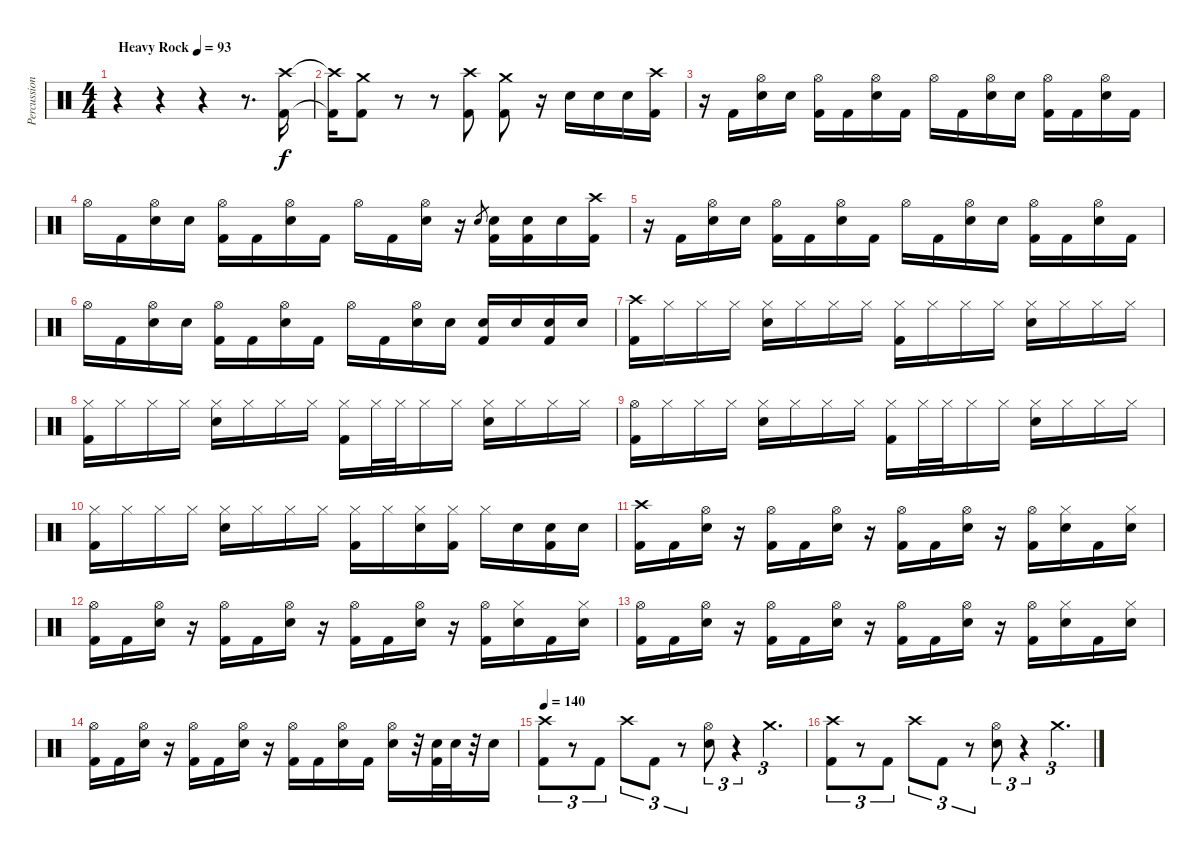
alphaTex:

\track ("Percussion" "Percussion") {instrument percussion}
\staff {score}
\articulation defaults
\ts (4 4)
\tempo (93 "Heavy Rock")
\clef neutral
\ks c
r.4{dy f} r.4 r.4 r.8{d} ("Crash high (hit)" "Kick (hit) 2").16 |
("Crash high (hit)"{t} "Kick (hit) 2"{t}).16 ("Crash medium (hit)" "Kick (hit) 2").8 r.8 r.8 ("Crash high (hit)" "Kick (hit) 2").8 ("Crash medium (hit)" "Kick (hit) 2").8 r.16 "Electric Snare (hit)".16 "Electric Snare (hit)".16 "Electric Snare (hit)".16 ("Crash high (hit)" "Kick (hit) 2").16 |
r.16 "Kick (hit) 2".16 ("Hi-Hat (open)" "Electric Snare (hit)").16 "Electric Snare (hit)".16 ("Hi-Hat (open)" "Kick (hit) 2").16 "Kick (hit) 2".16 ("Hi-Hat (open)" "Electric Snare (hit)").16 "Kick (hit) 2".16 "Hi-Hat (open)".16 "Kick (hit) 2".16 ("Hi-Hat (open)" "Electric Snare (hit)").16 "Electric Snare (hit)".16 ("Hi-Hat (open)" "Kick (hit) 2").16 "Kick (hit) 2".16 ("Hi-Hat (open)" "Electric Snare (hit)").16 "Kick (hit) 2".16 |
"Hi-Hat (open)".16 "Kick (hit) 2".16 ("Hi-Hat (open)" "Electric Snare (hit)").16 "Electric Snare (hit)".16 ("Hi-Hat (open)" "Kick (hit) 2").16 "Kick (hit) 2".16 ("Hi-Hat (open)" "Electric Snare (hit)").16 "Kick (hit) 2".16 "Hi-Hat (open)".16 "Kick (hit) 2".16 ("Hi-Hat (open)" "Electric Snare (hit)").16 r.16 "Electric Snare (hit)".8{gr} ("Electric Snare (hit)" "Kick (hit) 2").16 ("Electric Snare (hit)" "Kick (hit) 2").16 "Electric Snare (hit)".16 ("Crash high (hit)" "Kick (hit) 2").16 |
r.16 "Kick (hit) 2".16 ("Hi-Hat (open)" "Electric Snare (hit)").16 "Electric Snare (hit)".16 ("Hi-Hat (open)" "Kick (hit) 2").16 "Kick (hit) 2".16 ("Hi-Hat (open)" "Electric Snare (hit)").16 "Kick (hit) 2".16 "Hi-Hat (open)".16 "Kick (hit) 2".16 ("Hi-Hat (open)" "Electric Snare (hit)").16 "Electric Snare (hit)".16 ("Hi-Hat (open)" "Kick (hit) 2").16 "Kick (hit) 2".16 ("Hi-Hat (open)" "Electric Snare (hit)").16 "Kick (hit) 2".16 |
"Hi-Hat (open)".16 "Kick (hit) 2".16 ("Hi-Hat (open)" "Electric Snare (hit)").16 "Electric Snare (hit)".16 ("Hi-Hat (open)" "Kick (hit) 2").16 "Kick (hit) 2".16 ("Hi-Hat (open)" "Electric Snare (hit)").16 "Kick (hit) 2".16 "Hi-Hat (open)".16 "Kick (hit) 2".16 ("Hi-Hat (open)" "Electric Snare (hit)").16 "Electric Snare (hit)".16 ("Electric Snare (hit)" "Kick (hit) 2").16 "Electric Snare (hit)".16 ("Electric Snare (hit)" "Kick (hit) 2").16 "Electric Snare (hit)".16 |
("Crash high (hit)" "Kick (hit) 2").16 "Hi-Hat (closed)".16 "Hi-Hat (closed)".16 "Hi-Hat (closed)".16 ("Hi-Hat (closed)" "Electric Snare (hit)").16 "Hi-Hat (closed)".16 "Hi-Hat (closed)".16 "Hi-Hat (closed)".16 ("Hi-Hat (closed)" "Kick (hit) 2").16 "Hi-Hat (closed)".16 "Hi-Hat (closed)".16 "Hi-Hat (closed)".16 ("Hi-Hat (closed)" "Electric Snare (hit)").16 "Hi-Hat (closed)".16 "Hi-Hat (closed)".16 "Hi-Hat (closed)".16 |
("Hi-Hat (closed)" "Kick (hit) 2").16 "Hi-Hat (closed)".16 "Hi-Hat (closed)".16 "Hi-Hat (closed)".16 ("Hi-Hat (closed)" "Electric Snare (hit)").16 "Hi-Hat (closed)".16 "Hi-Hat (closed)".16 "Hi-Hat (closed)".16 ("Hi-Hat (closed)" "Kick (hit) 2").16 "Hi-Hat (closed)".32 "Hi-Hat (closed)".32 "Hi-Hat (closed)".16 "Hi-Hat (closed)".16 ("Hi-Hat (closed)" "Electric Snare (hit)").16 "Hi-Hat (closed)".16 "Hi-Hat (closed)".16 "Hi-Hat (closed)".16 |
("Hi-Hat (open)" "Kick (hit) 2").16 "Hi-Hat (closed)".16 "Hi-Hat (closed)".16 "Hi-Hat (closed)".16 ("Hi-Hat (closed)" "Electric Snare (hit)").16 "Hi-Hat (closed)".16 "Hi-Hat (closed)".16 "Hi-Hat (closed)".16 ("Hi-Hat (closed)" "Kick (hit) 2").16 "Hi-Hat (closed)".32 "Hi-Hat (closed)".32 "Hi-Hat (closed)".16 "Hi-Hat (closed)".16 ("Hi-Hat (closed)" "Electric Snare (hit)").16 "Hi-Hat (closed)".16 "Hi-Hat (closed)".16 "Hi-Hat (closed)".16 |
("Hi-Hat (closed)" "Kick (hit) 2").16 "Hi-Hat (closed)".16 "Hi-Hat (closed)".16 "Hi-Hat (closed)".16 ("Hi-Hat (closed)" "Electric Snare (hit)").16 "Hi-Hat (closed)".16 "Hi-Hat (closed)".16 "Hi-Hat (closed)".16 ("Hi-Hat (closed)" "Kick (hit) 2").16 "Hi-Hat (closed)".16 ("Hi-Hat (closed)" "Electric Snare (hit)").16 ("Hi-Hat (closed)" "Kick (hit) 2").16 "Hi-Hat (closed)".16 "Electric Snare (hit)".16 ("Electric Snare (hit)" "Kick (hit) 2").16 "Electric Snare (hit)".16 |
("Crash high (hit)" "Kick (hit) 2").16 "Kick (hit) 2".16 ("Hi-Hat (open)" "Electric Snare (hit)").16 r.16 ("Hi-Hat (open)" "Kick (hit) 2").16 "Kick (hit) 2".16 ("Hi-Hat (open)" "Electric Snare (hit)").16 r.16 ("Hi-Hat (open)" "Kick (hit) 2").16 "Kick (hit) 2".16 ("Hi-Hat (open)" "Electric Snare (hit)").16 r.16 ("Hi-Hat (open)" "Kick (hit) 2").16 ("Hi-Hat (closed)" "Electric Snare (hit)").16 "Kick (hit) 2".16 ("Hi-Hat (closed)" "Electric Snare (hit)").16 |
("Hi-Hat (open)" "Kick (hit) 2").16 "Kick (hit) 2".16 ("Hi-Hat (open)" "Electric Snare (hit)").16 r.16 ("Hi-Hat (open)" "Kick (hit) 2").16 "Kick (hit) 2".16 ("Hi-Hat (open)" "Electric Snare (hit)").16 r.16 ("Hi-Hat (open)" "Kick (hit) 2").16 "Kick (hit) 2".16 ("Hi-Hat (open)" "Electric Snare (hit)").16 r.16 ("Hi-Hat (open)" "Kick (hit) 2").16 ("Hi-Hat (closed)" "Electric Snare (hit)").16 "Kick (hit) 2".16 ("Hi-Hat (closed)" "Electric Snare (hit)").16 |
("Hi-Hat (open)" "Kick (hit) 2").16 "Kick (hit) 2".16 ("Hi-Hat (open)" "Electric Snare (hit)").16 r.16 ("Hi-Hat (open)" "Kick (hit) 2").16 "Kick (hit) 2".16 ("Hi-Hat (open)" "Electric Snare (hit)").16 r.16 ("Hi-Hat (open)" "Kick (hit) 2").16 "Kick (hit) 2".16 ("Hi-Hat (open)" "Electric Snare (hit)").16 r.16 ("Hi-Hat (open)" "Kick (hit) 2").16 ("Hi-Hat (closed)" "Electric Snare (hit)").16 "Kick (hit) 2".16 ("Hi-Hat (closed)" "Electric Snare (hit)").16 |
("Hi-Hat (open)" "Kick (hit) 2").16 "Kick (hit) 2".16 ("Hi-Hat (open)" "Electric Snare (hit)").16 r.16 ("Hi-Hat (open)" "Kick (hit) 2").16 "Kick (hit) 2".16 ("Hi-Hat (open)" "Electric Snare (hit)").16 r.16 ("Hi-Hat (open)" "Kick (hit) 2").16 "Kick (hit) 2".16 ("Hi-Hat (open)" "Electric Snare (hit)").16 "Kick (hit) 2".16 ("Hi-Hat (open)" "Electric Snare (hit)").16 r.32 ("Electric Snare (hit)" "Kick (hit) 2").32 "Electric Snare (hit)".32 r.32 "Electric Snare (hit)".16 |
\tempo 140
("Crash high (hit)" "Kick (hit) 2").8{tu (3 2)} r.8{tu (3 2)} "Kick (hit) 2".8{tu (3 2)} "Crash high (hit)".8{tu (3 2)} "Kick (hit) 2".8{tu (3 2)} r.8{tu (3 2)} ("Hi-Hat (open)" "Electric Snare (hit)").8{tu (3 2)} r.4{tu (3 2)} "Crash medium (hit)".4{d tu (3 2)} |
("Crash high (hit)" "Kick (hit) 2").8{tu (3 2)} r.8{tu (3 2)} "Kick (hit) 2".8{tu (3 2)} "Crash high (hit)".8{tu (3 2)} "Kick (hit) 2".8{tu (3 2)} r.8{tu (3 2)} ("Hi-Hat (open)" "Electric Snare (hit)").8{tu (3 2)} r.4{tu (3 2)} "Crash medium (hit)".4{d tu (3 2)}
